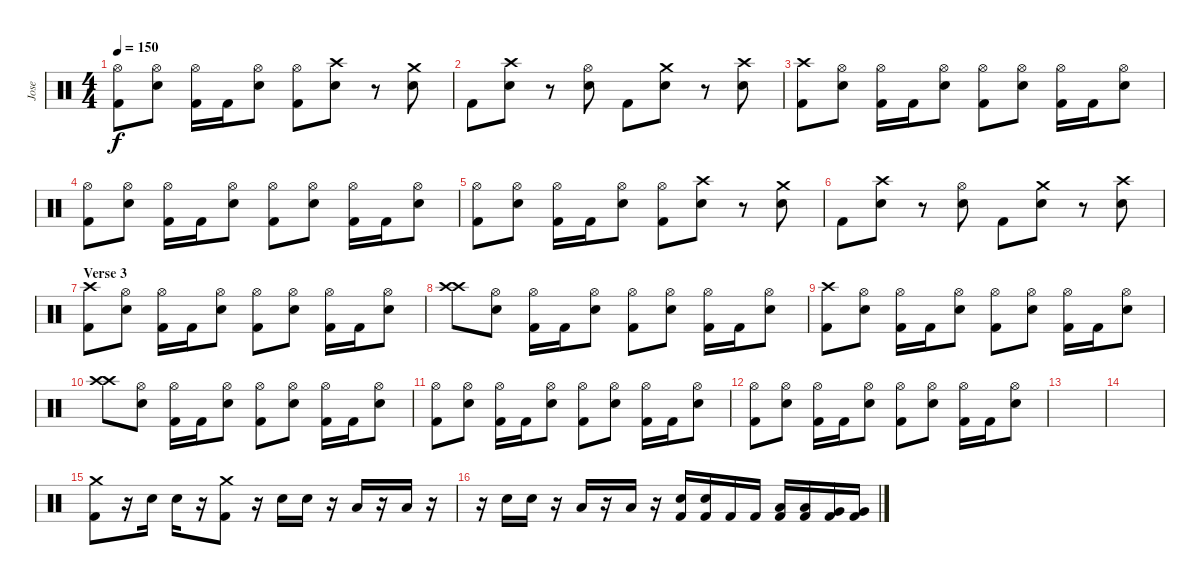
\track ("Jose" "Jose") {instrument percussion}
\staff {score}
\articulation defaults
\ts (4 4)
\tempo 150
\clef neutral
\ks c
("Hi-Hat (open)" "Kick (hit) 2").8{dy f} ("Hi-Hat (open)" "Snare (hit) 2").8 ("Hi-Hat (open)" "Kick (hit) 2").16 "Kick (hit) 2".16 ("Hi-Hat (open)" "Snare (hit) 2").8 ("Hi-Hat (open)" "Kick (hit) 2").8 ("Crash high (hit)" "Snare (hit) 2").8 r.8 ("Crash medium (hit)" "Snare (hit) 2").8 |
"Kick (hit) 2".8 ("Crash high (hit)" "Snare (hit) 2").8 r.8 ("Hi-Hat (open)" "Snare (hit) 2").8 "Kick (hit) 2".8 ("Crash medium (hit)" "Snare (hit) 2").8 r.8 ("Crash high (hit)" "Snare (hit) 2").8 |
("Crash high (hit)" "Kick (hit) 2").8 ("Hi-Hat (open)" "Snare (hit) 2").8 ("Hi-Hat (open)" "Kick (hit) 2").16 "Kick (hit) 2".16 ("Hi-Hat (open)" "Snare (hit) 2").8 ("Hi-Hat (open)" "Kick (hit) 2").8 ("Hi-Hat (open)" "Snare (hit) 2").8 ("Hi-Hat (open)" "Kick (hit) 2").16 "Kick (hit) 2".16 ("Hi-Hat (open)" "Snare (hit) 2").8 |
("Hi-Hat (open)" "Kick (hit) 2").8 ("Hi-Hat (open)" "Snare (hit) 2").8 ("Hi-Hat (open)" "Kick (hit) 2").16 "Kick (hit) 2".16 ("Hi-Hat (open)" "Snare (hit) 2").8 ("Hi-Hat (open)" "Kick (hit) 2").8 ("Hi-Hat (open)" "Snare (hit) 2").8 ("Hi-Hat (open)" "Kick (hit) 2").16 "Kick (hit) 2".16 ("Hi-Hat (open)" "Snare (hit) 2").8 |
("Hi-Hat (open)" "Kick (hit) 2").8 ("Hi-Hat (open)" "Snare (hit) 2").8 ("Hi-Hat (open)" "Kick (hit) 2").16 "Kick (hit) 2".16 ("Hi-Hat (open)" "Snare (hit) 2").8 ("Hi-Hat (open)" "Kick (hit) 2").8 ("Crash high (hit)" "Snare (hit) 2").8 r.8 ("Crash medium (hit)" "Snare (hit) 2").8 |
"Kick (hit) 2".8 ("Crash high (hit)" "Snare (hit) 2").8 r.8 ("Hi-Hat (open)" "Snare (hit) 2").8 "Kick (hit) 2".8 ("Crash medium (hit)" "Snare (hit) 2").8 r.8 ("Crash high (hit)" "Snare (hit) 2").8 |
\section ("" "Verse 3")
("Crash high (hit)" "Kick (hit) 2").8 ("Hi-Hat (open)" "Snare (hit) 2").8 ("Hi-Hat (open)" "Kick (hit) 2").16 "Kick (hit) 2".16 ("Hi-Hat (open)" "Snare (hit) 2").8 ("Hi-Hat (open)" "Kick (hit) 2").8 ("Hi-Hat (open)" "Snare (hit) 2").8 ("Hi-Hat (open)" "Kick (hit) 2").16 "Kick (hit) 2".16 ("Hi-Hat (open)" "Snare (hit) 2").8 |
("Crash high (hit)" "Crash high (hit)").8 ("Hi-Hat (open)" "Snare (hit) 2").8 ("Hi-Hat (open)" "Kick (hit) 2").16 "Kick (hit) 2".16 ("Hi-Hat (open)" "Snare (hit) 2").8 ("Hi-Hat (open)" "Kick (hit) 2").8 ("Hi-Hat (open)" "Snare (hit) 2").8 ("Hi-Hat (open)" "Kick (hit) 2").16 "Kick (hit) 2".16 ("Hi-Hat (open)" "Snare (hit) 2").8 |
("Crash high (hit)" "Kick (hit) 2").8 ("Hi-Hat (open)" "Snare (hit) 2").8 ("Hi-Hat (open)" "Kick (hit) 2").16 "Kick (hit) 2".16 ("Hi-Hat (open)" "Snare (hit) 2").8 ("Hi-Hat (open)" "Kick (hit) 2").8 ("Hi-Hat (open)" "Snare (hit) 2").8 ("Hi-Hat (open)" "Kick (hit) 2").16 "Kick (hit) 2".16 ("Hi-Hat (open)" "Snare (hit) 2").8 |
("Crash high (hit)" "Crash high (hit)").8 ("Hi-Hat (open)" "Snare (hit) 2").8 ("Hi-Hat (open)" "Kick (hit) 2").16 "Kick (hit) 2".16 ("Hi-Hat (open)" "Snare (hit) 2").8 ("Hi-Hat (open)" "Kick (hit) 2").8 ("Hi-Hat (open)" "Snare (hit) 2").8 ("Hi-Hat (open)" "Kick (hit) 2").16 "Kick (hit) 2".16 ("Hi-Hat (open)" "Snare (hit) 2").8 |
("Hi-Hat (open)" "Kick (hit) 2").8 ("Hi-Hat (open)" "Snare (hit) 2").8 ("Hi-Hat (open)" "Kick (hit) 2").16 "Kick (hit) 2".16 ("Hi-Hat (open)" "Snare (hit) 2").8 ("Hi-Hat (open)" "Kick (hit) 2").8 ("Hi-Hat (open)" "Snare (hit) 2").8 ("Hi-Hat (open)" "Kick (hit) 2").16 "Kick (hit) 2".16 ("Hi-Hat (open)" "Snare (hit) 2").8 |
("Hi-Hat (open)" "Kick (hit) 2").8 ("Hi-Hat (open)" "Snare (hit) 2").8 ("Hi-Hat (open)" "Kick (hit) 2").16 "Kick (hit) 2".16 ("Hi-Hat (open)" "Snare (hit) 2").8 ("Hi-Hat (open)" "Kick (hit) 2").8 ("Hi-Hat (open)" "Snare (hit) 2").8 ("Hi-Hat (open)" "Kick (hit) 2").16 "Kick (hit) 2".16 ("Hi-Hat (open)" "Snare (hit) 2").8 |
|
|
("Crash medium (hit)" "Kick (hit) 2").8 r.16 "Electric Snare (hit)".16 "Electric Snare (hit)".16 r.16 ("Crash medium (hit)" "Kick (hit) 2").8 r.16 "Electric Snare (hit)".16 "Electric Snare (hit)".16 r.16 "Low Tom (hit)".16 r.16 "Low Tom (hit)".16 r.16 |
r.16 "Electric Snare (hit)".16 "Electric Snare (hit)".16 r.16 "Low Tom (hit)".16 r.16 "Low Tom (hit)".16 r.16 ("Electric Snare (hit)" "Kick (hit) 2").16 ("Electric Snare (hit)" "Kick (hit) 2").16 "Kick (hit) 2".16 "Kick (hit) 2".16 ("Low Tom (hit)" "Kick (hit) 2").16 ("Low Tom (hit)" "Kick (hit) 2").16 ("Very Low Tom (hit)" "Kick (hit) 2").16 ("Very Low Tom (hit)" "Kick (hit) 2").16
